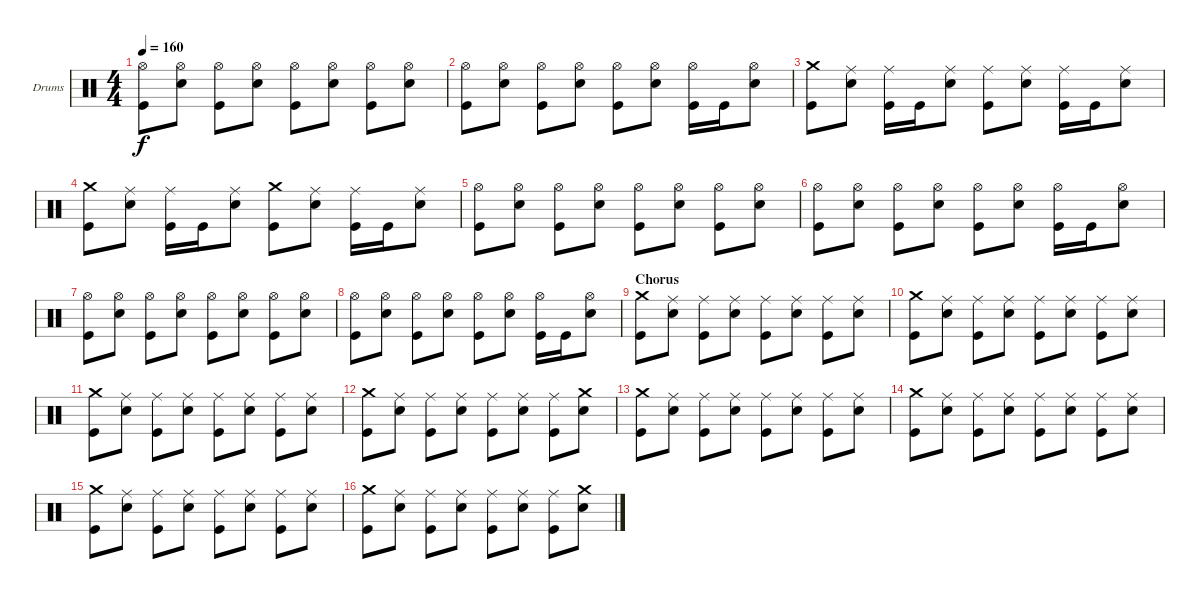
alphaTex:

\bracketExtendMode groupsimilarinstruments
\firstSystemTrackNameOrientation horizontal
\otherSystemsTrackNameOrientation horizontal
\track ("Drums" "Drums") {instrument percussion}
\staff {score}
\articulation defaults
\ts (4 4)
\tempo 160
\clef neutral
\ks c
("Hi-Hat (open)" "Kick (hit)").8{dy f} ("Hi-Hat (open)" "Snare (hit) 2").8 ("Hi-Hat (open)" "Kick (hit)").8 ("Hi-Hat (open)" "Snare (hit) 2").8 ("Hi-Hat (open)" "Kick (hit)").8 ("Hi-Hat (open)" "Snare (hit) 2").8 ("Hi-Hat (open)" "Kick (hit)").8 ("Hi-Hat (open)" "Snare (hit) 2").8 |
("Hi-Hat (open)" "Kick (hit)").8 ("Hi-Hat (open)" "Snare (hit) 2").8 ("Hi-Hat (open)" "Kick (hit)").8 ("Hi-Hat (open)" "Snare (hit) 2").8 ("Hi-Hat (open)" "Kick (hit)").8 ("Hi-Hat (open)" "Snare (hit) 2").8 ("Hi-Hat (open)" "Kick (hit)").16 "Kick (hit)".16 ("Hi-Hat (open)" "Snare (hit) 2").8 |
("Crash medium (hit)" "Kick (hit)").8 ("Ride (middle)" "Snare (hit) 2").8 ("Ride (middle)" "Kick (hit)").16 "Kick (hit)".16 ("Ride (middle)" "Snare (hit) 2").8 ("Ride (middle)" "Kick (hit)").8 ("Ride (middle)" "Snare (hit) 2").8 ("Ride (middle)" "Kick (hit)").16 "Kick (hit)".16 ("Ride (middle)" "Snare (hit) 2").8 |
("Crash medium (hit)" "Kick (hit)").8 ("Ride (middle)" "Snare (hit) 2").8 ("Ride (middle)" "Kick (hit)").16 "Kick (hit)".16 ("Ride (middle)" "Snare (hit) 2").8 ("Crash medium (hit)" "Kick (hit)").8 ("Ride (middle)" "Snare (hit) 2").8 ("Ride (middle)" "Kick (hit)").16 "Kick (hit)".16 ("Ride (middle)" "Snare (hit) 2").8 |
("Hi-Hat (open)" "Kick (hit)").8 ("Hi-Hat (open)" "Snare (hit) 2").8 ("Hi-Hat (open)" "Kick (hit)").8 ("Hi-Hat (open)" "Snare (hit) 2").8 ("Hi-Hat (open)" "Kick (hit)").8 ("Hi-Hat (open)" "Snare (hit) 2").8 ("Hi-Hat (open)" "Kick (hit)").8 ("Hi-Hat (open)" "Snare (hit) 2").8 |
("Hi-Hat (open)" "Kick (hit)").8 ("Hi-Hat (open)" "Snare (hit) 2").8 ("Hi-Hat (open)" "Kick (hit)").8 ("Hi-Hat (open)" "Snare (hit) 2").8 ("Hi-Hat (open)" "Kick (hit)").8 ("Hi-Hat (open)" "Snare (hit) 2").8 ("Hi-Hat (open)" "Kick (hit)").16 "Kick (hit)".16 ("Hi-Hat (open)" "Snare (hit) 2").8 |
("Hi-Hat (open)" "Kick (hit)").8 ("Hi-Hat (open)" "Snare (hit) 2").8 ("Hi-Hat (open)" "Kick (hit)").8 ("Hi-Hat (open)" "Snare (hit) 2").8 ("Hi-Hat (open)" "Kick (hit)").8 ("Hi-Hat (open)" "Snare (hit) 2").8 ("Hi-Hat (open)" "Kick (hit)").8 ("Hi-Hat (open)" "Snare (hit) 2").8 |
("Hi-Hat (open)" "Kick (hit)").8 ("Hi-Hat (open)" "Snare (hit) 2").8 ("Hi-Hat (open)" "Kick (hit)").8 ("Hi-Hat (open)" "Snare (hit) 2").8 ("Hi-Hat (open)" "Kick (hit)").8 ("Hi-Hat (open)" "Snare (hit) 2").8 ("Hi-Hat (open)" "Kick (hit)").16 "Kick (hit)".16 ("Hi-Hat (open)" "Snare (hit) 2").8 |
\section ("" "Chorus")
("Crash medium (hit)" "Kick (hit)").8 ("Ride (middle)" "Snare (hit) 2").8 ("Ride (middle)" "Kick (hit)").8 ("Ride (middle)" "Snare (hit) 2").8 ("Ride (middle)" "Kick (hit)").8 ("Ride (middle)" "Snare (hit) 2").8 ("Ride (middle)" "Kick (hit)").8 ("Ride (middle)" "Snare (hit) 2").8 |
("Crash medium (hit)" "Kick (hit)").8 ("Ride (middle)" "Snare (hit) 2").8 ("Ride (middle)" "Kick (hit)").8 ("Ride (middle)" "Snare (hit) 2").8 ("Ride (middle)" "Kick (hit)").8 ("Ride (middle)" "Snare (hit) 2").8 ("Ride (middle)" "Kick (hit)").8 ("Ride (middle)" "Snare (hit) 2").8 |
("Crash medium (hit)" "Kick (hit)").8 ("Ride (middle)" "Snare (hit) 2").8 ("Ride (middle)" "Kick (hit)").8 ("Ride (middle)" "Snare (hit) 2").8 ("Ride (middle)" "Kick (hit)").8 ("Ride (middle)" "Snare (hit) 2").8 ("Ride (middle)" "Kick (hit)").8 ("Ride (middle)" "Snare (hit) 2").8 |
("Crash medium (hit)" "Kick (hit)").8 ("Ride (middle)" "Snare (hit) 2").8 ("Ride (middle)" "Kick (hit)").8 ("Ride (middle)" "Snare (hit) 2").8 ("Ride (middle)" "Kick (hit)").8 ("Ride (middle)" "Snare (hit) 2").8 ("Ride (middle)" "Kick (hit)").8 ("Crash medium (hit)" "Snare (hit) 2").8 |
("Crash medium (hit)" "Kick (hit)").8 ("Ride (middle)" "Snare (hit) 2").8 ("Ride (middle)" "Kick (hit)").8 ("Ride (middle)" "Snare (hit) 2").8 ("Ride (middle)" "Kick (hit)").8 ("Ride (middle)" "Snare (hit) 2").8 ("Ride (middle)" "Kick (hit)").8 ("Ride (middle)" "Snare (hit) 2").8 |
("Crash medium (hit)" "Kick (hit)").8 ("Ride (middle)" "Snare (hit) 2").8 ("Ride (middle)" "Kick (hit)").8 ("Ride (middle)" "Snare (hit) 2").8 ("Ride (middle)" "Kick (hit)").8 ("Ride (middle)" "Snare (hit) 2").8 ("Ride (middle)" "Kick (hit)").8 ("Ride (middle)" "Snare (hit) 2").8 |
("Crash medium (hit)" "Kick (hit)").8 ("Ride (middle)" "Snare (hit) 2").8 ("Ride (middle)" "Kick (hit)").8 ("Ride (middle)" "Snare (hit) 2").8 ("Ride (middle)" "Kick (hit)").8 ("Ride (middle)" "Snare (hit) 2").8 ("Ride (middle)" "Kick (hit)").8 ("Ride (middle)" "Snare (hit) 2").8 |
("Crash medium (hit)" "Kick (hit)").8 ("Ride (middle)" "Snare (hit) 2").8 ("Ride (middle)" "Kick (hit)").8 ("Ride (middle)" "Snare (hit) 2").8 ("Ride (middle)" "Kick (hit)").8 ("Ride (middle)" "Snare (hit) 2").8 ("Ride (middle)" "Kick (hit)").8 ("Crash medium (hit)" "Snare (hit) 2").8
